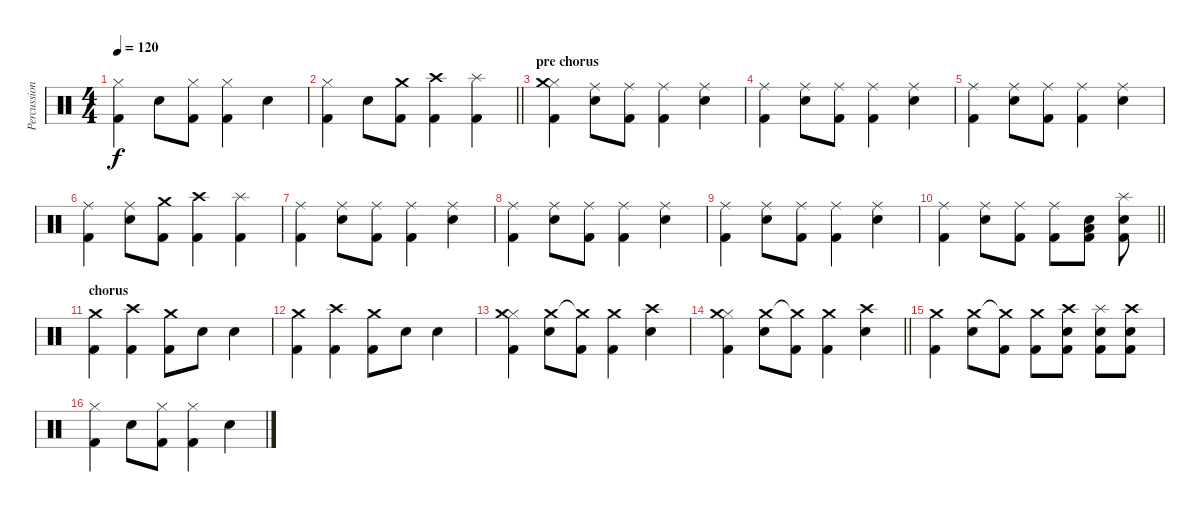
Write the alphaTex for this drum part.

\track ("Percussion" "Percussion") {instrument percussion}
\staff {score}
\articulation defaults
\ts (4 4)
\tempo 120
\clef neutral
\ks c
("Kick (hit) 2" "Hi-Hat (closed)").4{dy f} "Electric Snare (hit)".8 ("Kick (hit) 2" "Hi-Hat (closed)").8 ("Kick (hit) 2" "Hi-Hat (closed)").4 "Electric Snare (hit)".4 |
\barLineRight lightlight
("Kick (hit) 2" "Hi-Hat (closed)").4 "Electric Snare (hit)".8 ("Kick (hit) 2" "Crash medium (hit)").8 ("Kick (hit) 2" "Crash high (hit)").4 ("Kick (hit) 2" "Splash (hit)").4 |
\section ("" "pre chorus")
("Kick (hit) 2" "Hi-Hat (closed)" "Crash medium (hit)").4 ("Electric Snare (hit)" "Ride (middle)").8 ("Kick (hit) 2" "Ride (middle)").8 ("Kick (hit) 2" "Ride (middle)").4 ("Electric Snare (hit)" "Ride (middle)").4 |
("Kick (hit) 2" "Ride (middle)").4 ("Electric Snare (hit)" "Ride (middle)").8 ("Kick (hit) 2" "Ride (middle)").8 ("Kick (hit) 2" "Ride (middle)").4 ("Electric Snare (hit)" "Ride (middle)").4 |
("Kick (hit) 2" "Ride (middle)").4 ("Electric Snare (hit)" "Ride (middle)").8 ("Kick (hit) 2" "Ride (middle)").8 ("Kick (hit) 2" "Ride (middle)").4 ("Electric Snare (hit)" "Ride (middle)").4 |
("Kick (hit) 2" "Ride (middle)").4 ("Electric Snare (hit)" "Ride (middle)").8 ("Kick (hit) 2" "Crash medium (hit)").8 ("Kick (hit) 2" "Crash high (hit)").4 ("Kick (hit) 2" "Splash (hit)").4 |
("Kick (hit) 2" "Ride (middle)").4 ("Electric Snare (hit)" "Ride (middle)").8 ("Kick (hit) 2" "Ride (middle)").8 ("Kick (hit) 2" "Ride (middle)").4 ("Electric Snare (hit)" "Ride (middle)").4 |
("Kick (hit) 2" "Ride (middle)").4 ("Electric Snare (hit)" "Ride (middle)").8 ("Kick (hit) 2" "Ride (middle)").8 ("Kick (hit) 2" "Ride (middle)").4 ("Electric Snare (hit)" "Ride (middle)").4 |
("Kick (hit) 2" "Ride (middle)").4 ("Electric Snare (hit)" "Ride (middle)").8 ("Kick (hit) 2" "Ride (middle)").8 ("Kick (hit) 2" "Ride (middle)").4 ("Electric Snare (hit)" "Ride (middle)").4 |
\barLineRight lightlight
("Kick (hit) 2" "Ride (middle)").4 ("Electric Snare (hit)" "Ride (middle)").8 ("Kick (hit) 2" "Ride (middle)").8 ("Kick (hit) 2" "Ride (middle)").8 ("Kick (hit) 2" "Electric Snare (hit)" "Low Floor Tom (hit)").8 ("Kick (hit) 2" "Electric Snare (hit)" "Splash (hit)").8 |
\section ("" "chorus")
("Kick (hit) 2" "Crash medium (hit)").4 ("Kick (hit) 2" "Crash high (hit)").4 ("Kick (hit) 2" "Crash medium (hit)").8 "Electric Snare (hit)".8 "Electric Snare (hit)".4 |
("Kick (hit) 2" "Crash medium (hit)").4 ("Kick (hit) 2" "Crash high (hit)").4 ("Kick (hit) 2" "Crash medium (hit)").8 "Electric Snare (hit)".8 "Electric Snare (hit)".4 |
("Kick (hit) 2" "Hi-Hat (closed)" "Crash medium (hit)").4 ("Electric Snare (hit)" "Crash medium (hit)").8 ("Kick (hit) 2" "Crash medium (hit)"{t}).8 ("Kick (hit) 2" "Crash medium (hit)").4 ("Electric Snare (hit)" "Crash high (hit)").4 |
\barLineRight lightlight
("Kick (hit) 2" "Hi-Hat (closed)" "Crash medium (hit)").4 ("Electric Snare (hit)" "Crash medium (hit)").8 ("Kick (hit) 2" "Crash medium (hit)"{t}).8 ("Kick (hit) 2" "Crash medium (hit)").4 ("Electric Snare (hit)" "Crash high (hit)").4 |
("Kick (hit) 2" "Crash medium (hit)").4 ("Electric Snare (hit)" "Crash medium (hit)").8 ("Kick (hit) 2" "Crash medium (hit)"{t}).8 ("Kick (hit) 2" "Crash medium (hit)").8 ("Kick (hit) 2" "Electric Snare (hit)" "Crash high (hit)").8 ("Kick (hit) 2" "Electric Snare (hit)" "Splash (hit)").8 ("Kick (hit) 2" "Electric Snare (hit)" "Crash high (hit)").8 |
("Kick (hit) 2" "Hi-Hat (closed)").4 "Electric Snare (hit)".8 ("Kick (hit) 2" "Hi-Hat (closed)").8 ("Kick (hit) 2" "Hi-Hat (closed)").4 "Electric Snare (hit)".4
